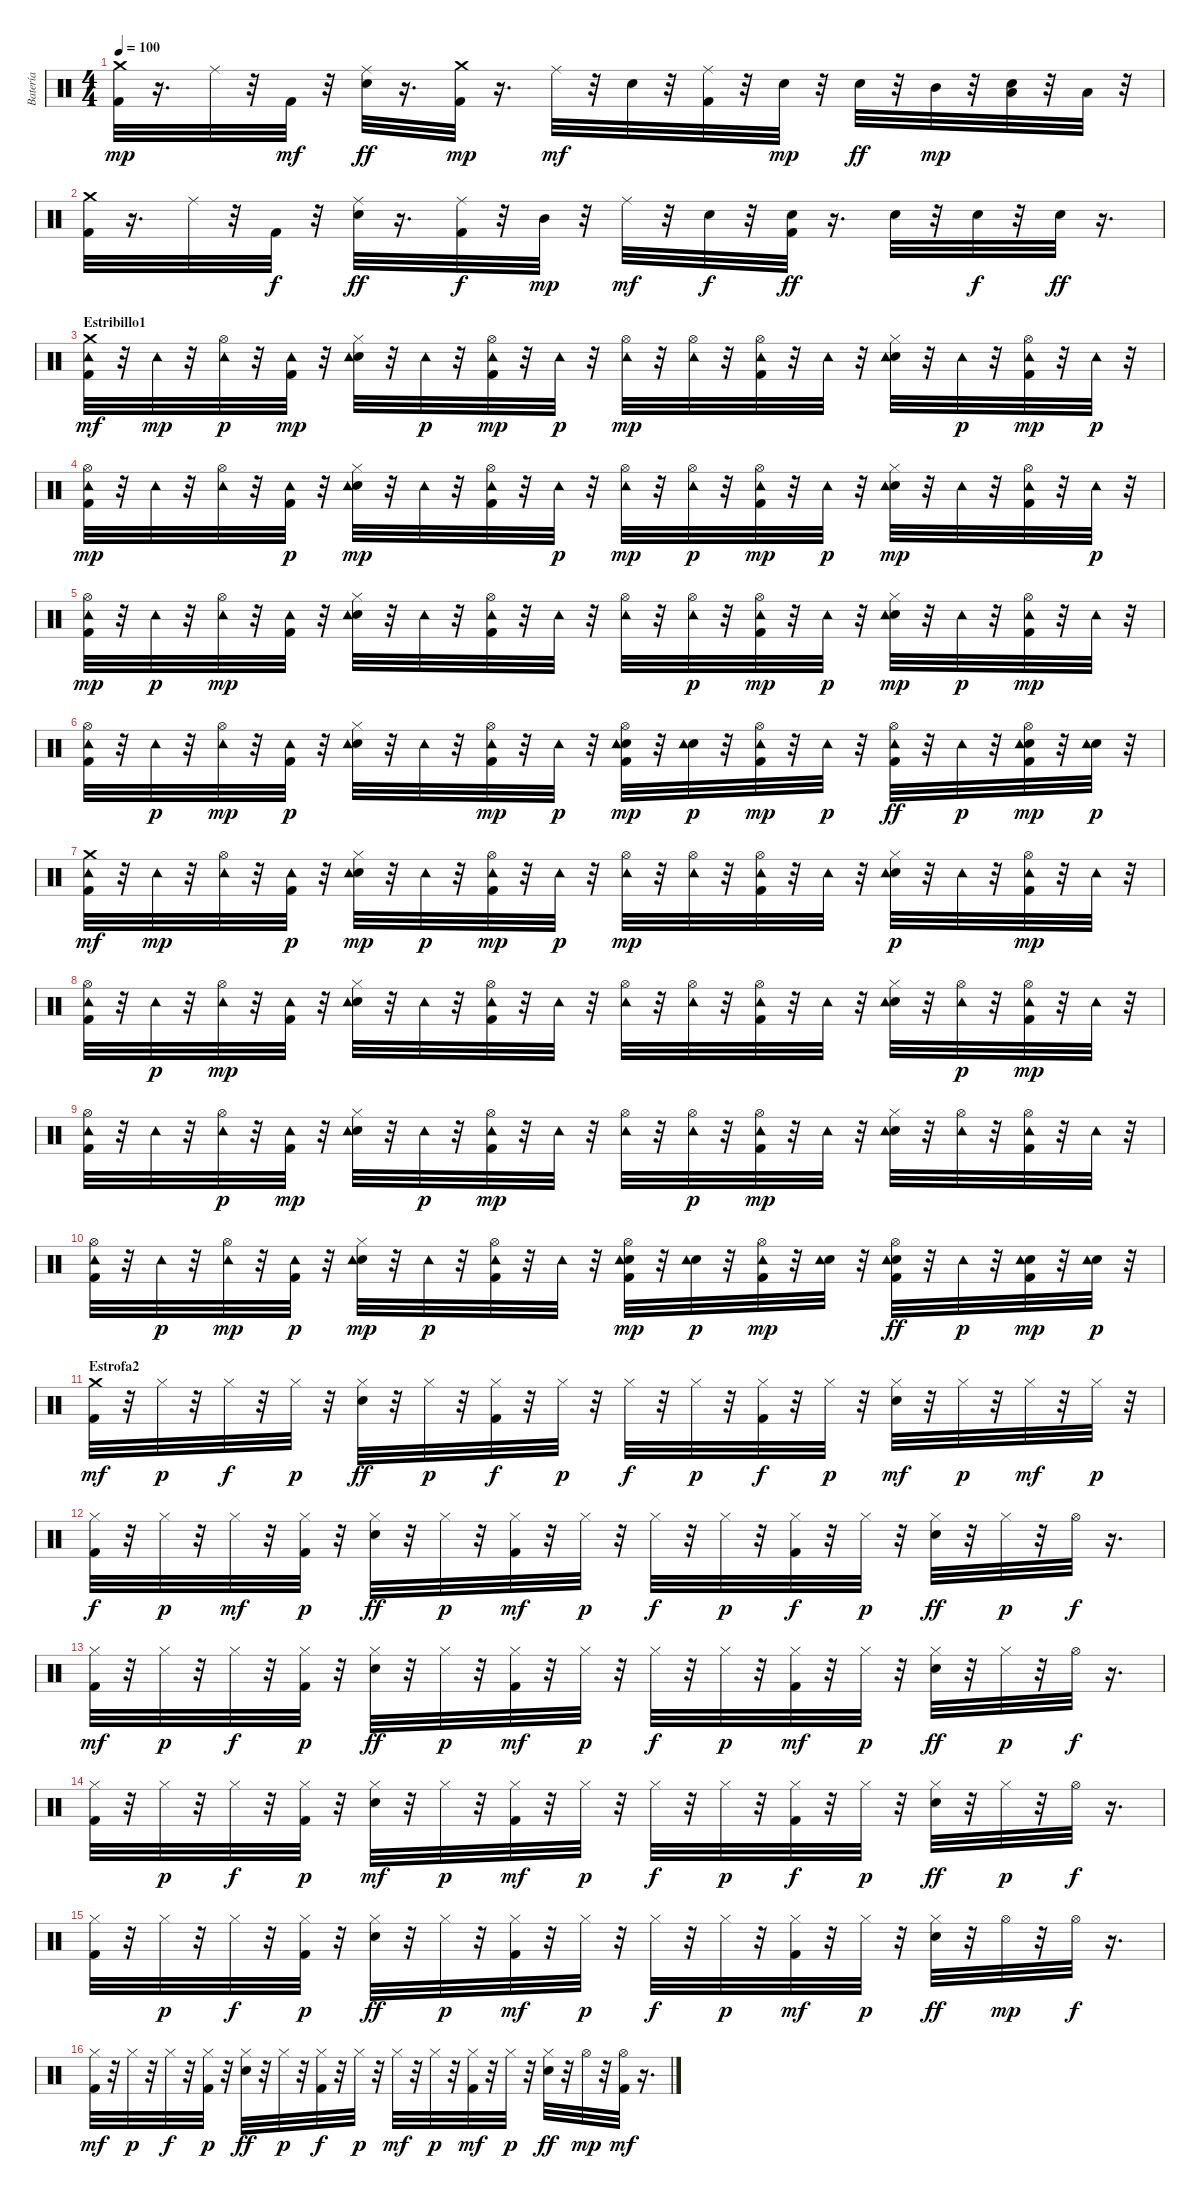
\track ("Batería" "Batería") {instrument percussion}
\staff {score}
\articulation defaults
\ts (4 4)
\tempo 100
\clef neutral
\ks c
("Kick (hit) 2" "Crash medium (hit)").32{dy mp} r.16{d} "Ride (middle)".32 r.32 "Kick (hit) 2".32{dy mf} r.32 ("Electric Snare (hit)" "Ride (middle)").32{dy ff} r.16{d} ("Kick (hit) 2" "Crash medium (hit)").32{dy mp} r.16{d} "Ride (middle)".32{dy mf} r.32 "Electric Snare (hit)".32 r.32 ("Kick (hit) 2" "Ride (middle)").32 r.32 "Electric Snare (hit)".32{dy mp} r.32 "Electric Snare (hit)".32{dy ff} r.32 "Mid Tom (hit)".32{dy mp} r.32 ("Electric Snare (hit)" "Low Tom (hit)").32 r.32 "Low Tom (hit)".32 r.32 |
("Kick (hit) 2" "Crash medium (hit)").32 r.16{d} "Ride (middle)".32 r.32 "Kick (hit) 2".32{dy f} r.32 ("Electric Snare (hit)" "Ride (middle)").32{dy ff} r.16{d} ("Kick (hit) 2" "Ride (middle)").32{dy f} r.32 "Mid Tom (hit)".32{dy mp} r.32 "Ride (middle)".32{dy mf} r.32 "Electric Snare (hit)".32{dy f} r.32 ("Kick (hit) 2" "Electric Snare (hit)").32{dy ff} r.16{d} "Electric Snare (hit)".32 r.32 "Electric Snare (hit)".32{dy f} r.32 "Electric Snare (hit)".32{dy ff} r.16{d} |
\section ("" "Estribillo1")
("Kick (hit) 2" "Tambourine (hit)" "Crash medium (hit)").32{dy mf} r.32 "Tambourine (hit)".32{dy mp} r.32 ("Hi-Hat (open)" "Tambourine (hit)").32{dy p} r.32 ("Kick (hit) 2" "Tambourine (hit)").32{dy mp} r.32 ("Electric Snare (hit)" "Hi-Hat (closed)" "Tambourine (hit)").32 r.32 "Tambourine (hit)".32{dy p} r.32 ("Kick (hit) 2" "Hi-Hat (open)" "Tambourine (hit)").32{dy mp} r.32 "Tambourine (hit)".32{dy p} r.32 ("Hi-Hat (open)" "Tambourine (hit)").32{dy mp} r.32 ("Hi-Hat (open)" "Tambourine (hit)").32 r.32 ("Kick (hit) 2" "Hi-Hat (open)" "Tambourine (hit)").32 r.32 "Tambourine (hit)".32 r.32 ("Electric Snare (hit)" "Hi-Hat (closed)" "Tambourine (hit)").32 r.32 "Tambourine (hit)".32{dy p} r.32 ("Kick (hit) 2" "Hi-Hat (open)" "Tambourine (hit)").32{dy mp} r.32 "Tambourine (hit)".32{dy p} r.32 |
("Kick (hit) 2" "Hi-Hat (open)" "Tambourine (hit)").32{dy mp} r.32 "Tambourine (hit)".32 r.32 ("Hi-Hat (open)" "Tambourine (hit)").32 r.32 ("Kick (hit) 2" "Tambourine (hit)").32{dy p} r.32 ("Electric Snare (hit)" "Hi-Hat (closed)" "Tambourine (hit)").32{dy mp} r.32 "Tambourine (hit)".32 r.32 ("Kick (hit) 2" "Hi-Hat (open)" "Tambourine (hit)").32 r.32 "Tambourine (hit)".32{dy p} r.32 ("Hi-Hat (open)" "Tambourine (hit)").32{dy mp} r.32 ("Hi-Hat (open)" "Tambourine (hit)").32{dy p} r.32 ("Kick (hit) 2" "Hi-Hat (open)" "Tambourine (hit)").32{dy mp} r.32 "Tambourine (hit)".32{dy p} r.32 ("Electric Snare (hit)" "Hi-Hat (closed)" "Tambourine (hit)").32{dy mp} r.32 "Tambourine (hit)".32 r.32 ("Kick (hit) 2" "Hi-Hat (open)" "Tambourine (hit)").32 r.32 "Tambourine (hit)".32{dy p} r.32 |
("Kick (hit) 2" "Hi-Hat (open)" "Tambourine (hit)").32{dy mp} r.32 "Tambourine (hit)".32{dy p} r.32 ("Hi-Hat (open)" "Tambourine (hit)").32{dy mp} r.32 ("Kick (hit) 2" "Tambourine (hit)").32 r.32 ("Electric Snare (hit)" "Hi-Hat (closed)" "Tambourine (hit)").32 r.32 "Tambourine (hit)".32 r.32 ("Kick (hit) 2" "Hi-Hat (open)" "Tambourine (hit)").32 r.32 "Tambourine (hit)".32 r.32 ("Hi-Hat (open)" "Tambourine (hit)").32 r.32 ("Hi-Hat (open)" "Tambourine (hit)").32{dy p} r.32 ("Kick (hit) 2" "Hi-Hat (open)" "Tambourine (hit)").32{dy mp} r.32 "Tambourine (hit)".32{dy p} r.32 ("Electric Snare (hit)" "Hi-Hat (closed)" "Tambourine (hit)").32{dy mp} r.32 "Tambourine (hit)".32{dy p} r.32 ("Kick (hit) 2" "Hi-Hat (open)" "Tambourine (hit)").32{dy mp} r.32 "Tambourine (hit)".32 r.32 |
("Kick (hit) 2" "Hi-Hat (open)" "Tambourine (hit)").32 r.32 "Tambourine (hit)".32{dy p} r.32 ("Hi-Hat (open)" "Tambourine (hit)").32{dy mp} r.32 ("Kick (hit) 2" "Tambourine (hit)").32{dy p} r.32 ("Electric Snare (hit)" "Hi-Hat (closed)" "Tambourine (hit)").32 r.32 "Tambourine (hit)".32 r.32 ("Kick (hit) 2" "Hi-Hat (open)" "Tambourine (hit)").32{dy mp} r.32 "Tambourine (hit)".32{dy p} r.32 ("Kick (hit) 2" "Electric Snare (hit)" "Hi-Hat (open)" "Tambourine (hit)").32{dy mp} r.32 ("Electric Snare (hit)" "Tambourine (hit)").32{dy p} r.32 ("Kick (hit) 2" "Hi-Hat (open)" "Tambourine (hit)").32{dy mp} r.32 "Tambourine (hit)".32{dy p} r.32 ("Kick (hit) 2" "Hi-Hat (open)" "Tambourine (hit)").32{dy ff} r.32 "Tambourine (hit)".32{dy p} r.32 ("Kick (hit) 2" "Electric Snare (hit)" "Hi-Hat (open)" "Tambourine (hit)").32{dy mp} r.32 ("Electric Snare (hit)" "Tambourine (hit)").32{dy p} r.32 |
("Kick (hit) 2" "Tambourine (hit)" "Crash medium (hit)").32{dy mf} r.32 "Tambourine (hit)".32{dy mp} r.32 ("Hi-Hat (open)" "Tambourine (hit)").32 r.32 ("Kick (hit) 2" "Tambourine (hit)").32{dy p} r.32 ("Electric Snare (hit)" "Hi-Hat (closed)" "Tambourine (hit)").32{dy mp} r.32 "Tambourine (hit)".32{dy p} r.32 ("Kick (hit) 2" "Hi-Hat (open)" "Tambourine (hit)").32{dy mp} r.32 "Tambourine (hit)".32{dy p} r.32 ("Hi-Hat (open)" "Tambourine (hit)").32{dy mp} r.32 ("Hi-Hat (open)" "Tambourine (hit)").32 r.32 ("Kick (hit) 2" "Hi-Hat (open)" "Tambourine (hit)").32 r.32 "Tambourine (hit)".32 r.32 ("Electric Snare (hit)" "Hi-Hat (closed)" "Tambourine (hit)").32{dy p} r.32 "Tambourine (hit)".32 r.32 ("Kick (hit) 2" "Hi-Hat (open)" "Tambourine (hit)").32{dy mp} r.32 "Tambourine (hit)".32 r.32 |
("Kick (hit) 2" "Hi-Hat (open)" "Tambourine (hit)").32 r.32 "Tambourine (hit)".32{dy p} r.32 ("Hi-Hat (open)" "Tambourine (hit)").32{dy mp} r.32 ("Kick (hit) 2" "Tambourine (hit)").32 r.32 ("Electric Snare (hit)" "Hi-Hat (closed)" "Tambourine (hit)").32 r.32 "Tambourine (hit)".32 r.32 ("Kick (hit) 2" "Hi-Hat (open)" "Tambourine (hit)").32 r.32 "Tambourine (hit)".32 r.32 ("Hi-Hat (open)" "Tambourine (hit)").32 r.32 ("Hi-Hat (open)" "Tambourine (hit)").32 r.32 ("Kick (hit) 2" "Hi-Hat (open)" "Tambourine (hit)").32 r.32 "Tambourine (hit)".32 r.32 ("Electric Snare (hit)" "Hi-Hat (closed)" "Tambourine (hit)").32 r.32 ("Hi-Hat (open)" "Tambourine (hit)").32{dy p} r.32 ("Kick (hit) 2" "Hi-Hat (open)" "Tambourine (hit)").32{dy mp} r.32 "Tambourine (hit)".32 r.32 |
("Kick (hit) 2" "Hi-Hat (open)" "Tambourine (hit)").32 r.32 "Tambourine (hit)".32 r.32 ("Hi-Hat (open)" "Tambourine (hit)").32{dy p} r.32 ("Kick (hit) 2" "Tambourine (hit)").32{dy mp} r.32 ("Electric Snare (hit)" "Hi-Hat (closed)" "Tambourine (hit)").32 r.32 "Tambourine (hit)".32{dy p} r.32 ("Kick (hit) 2" "Hi-Hat (open)" "Tambourine (hit)").32{dy mp} r.32 "Tambourine (hit)".32 r.32 ("Hi-Hat (open)" "Tambourine (hit)").32 r.32 ("Hi-Hat (open)" "Tambourine (hit)").32{dy p} r.32 ("Kick (hit) 2" "Hi-Hat (open)" "Tambourine (hit)").32{dy mp} r.32 "Tambourine (hit)".32 r.32 ("Electric Snare (hit)" "Hi-Hat (closed)" "Tambourine (hit)").32 r.32 ("Hi-Hat (open)" "Tambourine (hit)").32 r.32 ("Kick (hit) 2" "Hi-Hat (open)" "Tambourine (hit)").32 r.32 "Tambourine (hit)".32 r.32 |
("Kick (hit) 2" "Hi-Hat (open)" "Tambourine (hit)").32 r.32 "Tambourine (hit)".32{dy p} r.32 ("Hi-Hat (open)" "Tambourine (hit)").32{dy mp} r.32 ("Kick (hit) 2" "Tambourine (hit)").32{dy p} r.32 ("Electric Snare (hit)" "Hi-Hat (closed)" "Tambourine (hit)").32{dy mp} r.32 "Tambourine (hit)".32{dy p} r.32 ("Kick (hit) 2" "Hi-Hat (open)" "Tambourine (hit)").32 r.32 "Tambourine (hit)".32 r.32 ("Kick (hit) 2" "Electric Snare (hit)" "Hi-Hat (open)" "Tambourine (hit)").32{dy mp} r.32 ("Electric Snare (hit)" "Tambourine (hit)").32{dy p} r.32 ("Kick (hit) 2" "Hi-Hat (open)" "Tambourine (hit)").32{dy mp} r.32 ("Electric Snare (hit)" "Tambourine (hit)").32 r.32 ("Kick (hit) 2" "Electric Snare (hit)" "Hi-Hat (open)" "Tambourine (hit)").32{dy ff} r.32 "Tambourine (hit)".32{dy p} r.32 ("Kick (hit) 2" "Electric Snare (hit)" "Tambourine (hit)").32{dy mp} r.32 ("Electric Snare (hit)" "Tambourine (hit)").32{dy p} r.32 |
\section ("" "Estrofa2")
("Kick (hit) 2" "Crash medium (hit)").32{dy mf} r.32 "Hi-Hat (closed)".32{dy p} r.32 "Hi-Hat (closed)".32{dy f} r.32 "Hi-Hat (closed)".32{dy p} r.32 ("Electric Snare (hit)" "Hi-Hat (closed)").32{dy ff} r.32 "Hi-Hat (closed)".32{dy p} r.32 ("Kick (hit) 2" "Hi-Hat (closed)").32{dy f} r.32 "Hi-Hat (closed)".32{dy p} r.32 "Hi-Hat (closed)".32{dy f} r.32 "Hi-Hat (closed)".32{dy p} r.32 ("Kick (hit) 2" "Hi-Hat (closed)").32{dy f} r.32 "Hi-Hat (closed)".32{dy p} r.32 ("Electric Snare (hit)" "Hi-Hat (closed)").32{dy mf} r.32 "Hi-Hat (closed)".32{dy p} r.32 "Hi-Hat (closed)".32{dy mf} r.32 "Hi-Hat (closed)".32{dy p} r.32 |
("Kick (hit) 2" "Hi-Hat (closed)").32{dy f} r.32 "Hi-Hat (closed)".32{dy p} r.32 "Hi-Hat (closed)".32{dy mf} r.32 ("Kick (hit) 2" "Hi-Hat (closed)").32{dy p} r.32 ("Electric Snare (hit)" "Hi-Hat (closed)").32{dy ff} r.32 "Hi-Hat (closed)".32{dy p} r.32 ("Kick (hit) 2" "Hi-Hat (closed)").32{dy mf} r.32 "Hi-Hat (closed)".32{dy p} r.32 "Hi-Hat (closed)".32{dy f} r.32 "Hi-Hat (closed)".32{dy p} r.32 ("Kick (hit) 2" "Hi-Hat (closed)").32{dy f} r.32 "Hi-Hat (closed)".32{dy p} r.32 ("Electric Snare (hit)" "Hi-Hat (closed)").32{dy ff} r.32 "Hi-Hat (closed)".32{dy p} r.32 "Hi-Hat (open)".32{dy f} r.16{d} |
("Kick (hit) 2" "Hi-Hat (closed)").32{dy mf} r.32 "Hi-Hat (closed)".32{dy p} r.32 "Hi-Hat (closed)".32{dy f} r.32 ("Kick (hit) 2" "Hi-Hat (closed)").32{dy p} r.32 ("Electric Snare (hit)" "Hi-Hat (closed)").32{dy ff} r.32 "Hi-Hat (closed)".32{dy p} r.32 ("Kick (hit) 2" "Hi-Hat (closed)").32{dy mf} r.32 "Hi-Hat (closed)".32{dy p} r.32 "Hi-Hat (closed)".32{dy f} r.32 "Hi-Hat (closed)".32{dy p} r.32 ("Kick (hit) 2" "Hi-Hat (closed)").32{dy mf} r.32 "Hi-Hat (closed)".32{dy p} r.32 ("Electric Snare (hit)" "Hi-Hat (closed)").32{dy ff} r.32 "Hi-Hat (closed)".32{dy p} r.32 "Hi-Hat (open)".32{dy f} r.16{d} |
("Kick (hit) 2" "Hi-Hat (closed)").32 r.32 "Hi-Hat (closed)".32{dy p} r.32 "Hi-Hat (closed)".32{dy f} r.32 ("Kick (hit) 2" "Hi-Hat (closed)").32{dy p} r.32 ("Electric Snare (hit)" "Hi-Hat (closed)").32{dy mf} r.32 "Hi-Hat (closed)".32{dy p} r.32 ("Kick (hit) 2" "Hi-Hat (closed)").32{dy mf} r.32 "Hi-Hat (closed)".32{dy p} r.32 "Hi-Hat (closed)".32{dy f} r.32 "Hi-Hat (closed)".32{dy p} r.32 ("Kick (hit) 2" "Hi-Hat (closed)").32{dy f} r.32 "Hi-Hat (closed)".32{dy p} r.32 ("Electric Snare (hit)" "Hi-Hat (closed)").32{dy ff} r.32 "Hi-Hat (closed)".32{dy p} r.32 "Hi-Hat (open)".32{dy f} r.16{d} |
("Kick (hit) 2" "Hi-Hat (closed)").32 r.32 "Hi-Hat (closed)".32{dy p} r.32 "Hi-Hat (closed)".32{dy f} r.32 ("Kick (hit) 2" "Hi-Hat (closed)").32{dy p} r.32 ("Electric Snare (hit)" "Hi-Hat (closed)").32{dy ff} r.32 "Hi-Hat (closed)".32{dy p} r.32 ("Kick (hit) 2" "Hi-Hat (closed)").32{dy mf} r.32 "Hi-Hat (closed)".32{dy p} r.32 "Hi-Hat (closed)".32{dy f} r.32 "Hi-Hat (closed)".32{dy p} r.32 ("Kick (hit) 2" "Hi-Hat (closed)").32{dy mf} r.32 "Hi-Hat (closed)".32{dy p} r.32 ("Electric Snare (hit)" "Hi-Hat (closed)").32{dy ff} r.32 "Hi-Hat (open)".32{dy mp} r.32 "Hi-Hat (open)".32{dy f} r.16{d} |
("Kick (hit) 2" "Hi-Hat (closed)").32{dy mf} r.32 "Hi-Hat (closed)".32{dy p} r.32 "Hi-Hat (closed)".32{dy f} r.32 ("Kick (hit) 2" "Hi-Hat (closed)").32{dy p} r.32 ("Electric Snare (hit)" "Hi-Hat (closed)").32{dy ff} r.32 "Hi-Hat (closed)".32{dy p} r.32 ("Kick (hit) 2" "Hi-Hat (closed)").32{dy f} r.32 "Hi-Hat (closed)".32{dy p} r.32 "Hi-Hat (closed)".32{dy mf} r.32 "Hi-Hat (closed)".32{dy p} r.32 ("Kick (hit) 2" "Hi-Hat (closed)").32{dy mf} r.32 "Hi-Hat (closed)".32{dy p} r.32 ("Electric Snare (hit)" "Hi-Hat (closed)").32{dy ff} r.32 "Hi-Hat (open)".32{dy mp} r.32 ("Kick (hit) 2" "Hi-Hat (open)").32{dy mf} r.16{d}
